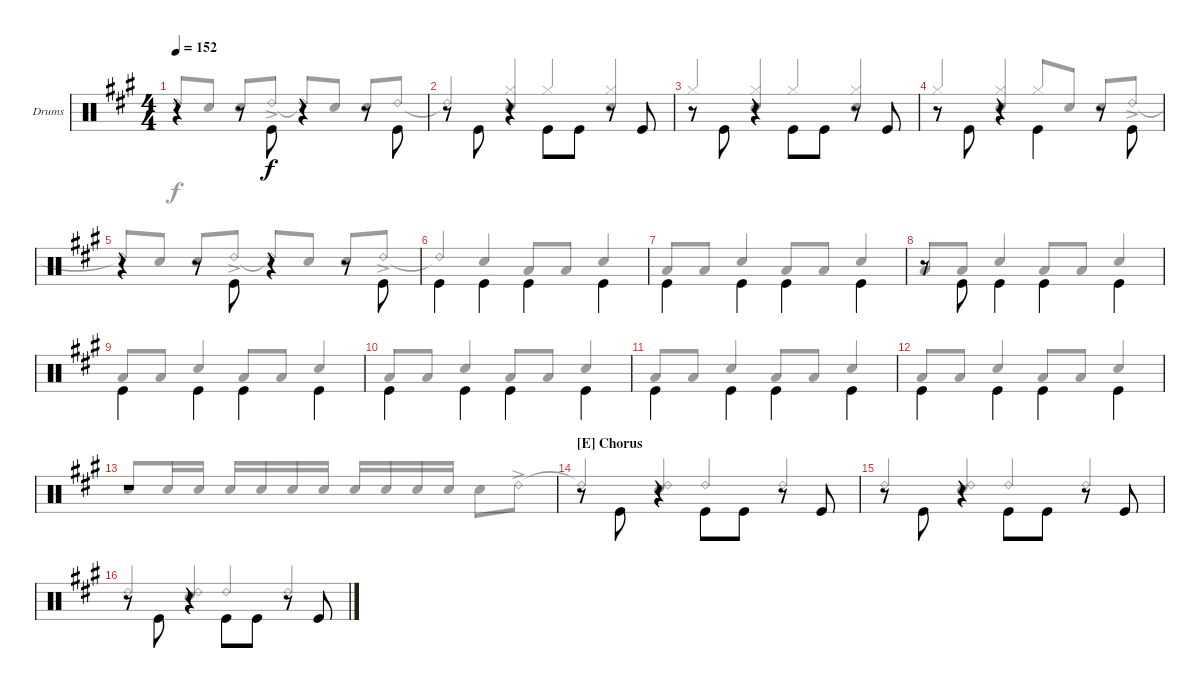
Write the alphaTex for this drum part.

\defaultSystemsLayout 4
\bracketExtendMode groupsimilarinstruments
\firstSystemTrackNameOrientation horizontal
\otherSystemsTrackNameOrientation horizontal
\track ("Drumkit" "Drums") {instrument percussion}
\staff {score}
\articulation defaults
\voice
\ts (4 4)
\tempo 152
\clef neutral
\scale
1.05801
\ks a
r.4{dy f} r.8{beam invert} "Kick (hit)".8{beam invert} r.4{beam invert} r.8{beam invert} "Kick (hit)".8{beam invert} |
\scale
0.941992 r.8 "Kick (hit)".8{beam invert} r.4 "Kick (hit)".8{beam invert} "Kick (hit)".8 r.8 "Kick (hit)".8 |
\scale
1.05801 r.8 "Kick (hit)".8{beam invert} r.4 "Kick (hit)".8{beam invert} "Kick (hit)".8 r.8 "Kick (hit)".8 |
\scale
0.941992 r.8 "Kick (hit)".8{beam invert} r.4 "Kick (hit)".4{beam invert} r.8 "Kick (hit)".8{beam invert} |
\scale
1.05801 r.4 r.8{beam invert} "Kick (hit)".8{beam invert} r.4{beam invert} r.8{beam invert} "Kick (hit)".8{beam invert} |
\scale
0.941992 "Kick (hit)".4{beam invert} "Kick (hit)".4{beam invert} "Kick (hit)".4{beam invert} "Kick (hit)".4{beam invert} |
\scale
1.05801 "Kick (hit)".4{beam invert} "Kick (hit)".4{beam invert} "Kick (hit)".4{beam invert} "Kick (hit)".4{beam invert} |
\scale
0.941992 r.8{beam invert} "Kick (hit)".8{beam invert} "Kick (hit)".4{beam invert} "Kick (hit)".4{beam invert} "Kick (hit)".4{beam invert} |
\scale
1.05801 "Kick (hit)".4{beam invert} "Kick (hit)".4{beam invert} "Kick (hit)".4{beam invert} "Kick (hit)".4{beam invert} |
\scale
0.941992 "Kick (hit)".4{beam invert} "Kick (hit)".4{beam invert} "Kick (hit)".4{beam invert} "Kick (hit)".4{beam invert} |
\scale
1.05801 "Kick (hit)".4{beam invert} "Kick (hit)".4{beam invert} "Kick (hit)".4{beam invert} "Kick (hit)".4{beam invert} |
\scale
0.941992 "Kick (hit)".4{beam invert} "Kick (hit)".4{beam invert} "Kick (hit)".4{beam invert} "Kick (hit)".4{beam invert} |
\scale
1.05801 r.1 |
\section ("E" "Chorus")
\scale
0.941992 r.8{beam invert} "Kick (hit)".8{beam invert} r.4{beam invert} "Kick (hit)".8{beam invert} "Kick (hit)".8 r.8 "Kick (hit)".8 |
\scale
1.05801 r.8{beam invert} "Kick (hit)".8{beam invert} r.4{beam invert} "Kick (hit)".8{beam invert} "Kick (hit)".8 r.8 "Kick (hit)".8 |
\scale
0.941992 r.8{beam invert} "Kick (hit)".8{beam invert} r.4{beam invert} "Kick (hit)".8{beam invert} "Kick (hit)".8 r.8 "Kick (hit)".8
\voice
\clef neutral
\ottava regular
\simile none
\scale
1.05801
\ks a "Ride (bell) 2"{t}.8{dy f beam invert} "Snare (hit) 2".8{beam invert} "Snare (hit) 2".8{beam invert} "Ride (bell) 2"{ac}.8 "Ride (bell) 2"{t}.8{beam invert} "Snare (hit) 2".8{beam invert} "Snare (hit) 2".8{beam invert} "Ride (bell) 2".8
|
\scale
0.941992 "Ride (bell) 2"{t}.4{beam invert} ("Hi-Hat (closed)" "Snare (hit) 2").4{beam invert} "Hi-Hat (closed)".4{beam invert} ("Hi-Hat (closed)" "Snare (hit) 2").4{beam invert} |
\scale
1.05801 "Hi-Hat (closed)".4{beam invert} ("Hi-Hat (closed)" "Snare (hit) 2").4{beam invert} "Hi-Hat (closed)".4{beam invert} ("Hi-Hat (closed)" "Snare (hit) 2").4{beam invert} |
\scale
0.941992 "Hi-Hat (closed)".4{beam invert} ("Hi-Hat (closed)" "Snare (hit) 2").4{beam invert} "Hi-Hat (closed)".8{beam invert} "Snare (hit) 2".8{beam invert} "Snare (hit) 2".8{beam invert} "Ride (bell) 2"{ac}.8 |
\scale
1.05801 "Ride (bell) 2"{t}.8{beam invert} "Snare (hit) 2".8{beam invert} "Snare (hit) 2".8{beam invert} "Ride (bell) 2"{ac}.8 "Ride (bell) 2"{t}.8{beam invert} "Snare (hit) 2".8{beam invert} "Snare (hit) 2".8{beam invert} "Ride (bell) 2"{ac}.8 |
\scale
0.941992 "Ride (bell) 2"{t}.4{beam invert} "Snare (hit) 2".4{beam invert} "Low Tom (hit)".8{beam invert} "Low Tom (hit)".8 "Snare (hit) 2".4{beam invert} |
\scale
1.05801 "Low Tom (hit)".8{beam invert} "Low Tom (hit)".8 "Snare (hit) 2".4{beam invert} "Low Tom (hit)".8{beam invert} "Low Tom (hit)".8 "Snare (hit) 2".4{beam invert} |
\scale
0.941992 "Low Tom (hit)".8{beam invert} "Low Tom (hit)".8 "Snare (hit) 2".4{beam invert} "Low Tom (hit)".8{beam invert} "Low Tom (hit)".8 "Snare (hit) 2".4{beam invert} |
\scale
1.05801 "Low Tom (hit)".8{beam invert} "Low Tom (hit)".8 "Snare (hit) 2".4{beam invert} "Low Tom (hit)".8{beam invert} "Low Tom (hit)".8 "Snare (hit) 2".4{beam invert} |
\scale
0.941992 "Low Tom (hit)".8{beam invert} "Low Tom (hit)".8 "Snare (hit) 2".4{beam invert} "Low Tom (hit)".8{beam invert} "Low Tom (hit)".8 "Snare (hit) 2".4{beam invert} |
\scale
1.05801 "Low Tom (hit)".8{beam invert} "Low Tom (hit)".8 "Snare (hit) 2".4{beam invert} "Low Tom (hit)".8{beam invert} "Low Tom (hit)".8 "Snare (hit) 2".4{beam invert} |
\scale
0.941992 "Low Tom (hit)".8{beam invert} "Low Tom (hit)".8 "Snare (hit) 2".4{beam invert} "Low Tom (hit)".8{beam invert} "Low Tom (hit)".8 "Snare (hit) 2".4{beam invert} |
\scale
1.05801 "Snare (hit) 2".8{beam invert} "Snare (hit) 2".16 "Snare (hit) 2".16 "Snare (hit) 2".16 "Snare (hit) 2".16 "Snare (hit) 2".16 "Snare (hit) 2".16 "Snare (hit) 2".16{beam invert} "Snare (hit) 2".16 "Snare (hit) 2".16 "Snare (hit) 2".16 "Snare (hit) 2".8 "Ride (bell) 2"{ac}.8 |
\scale
0.941992 "Ride (bell) 2"{t}.4{beam invert} ("Snare (hit) 2" "Ride (bell) 2").4{beam invert} "Ride (bell) 2".4{beam invert} "Ride (bell) 2".4{beam invert} |
\scale
1.05801 "Ride (bell) 2".4{beam invert} ("Snare (hit) 2" "Ride (bell) 2").4{beam invert} "Ride (bell) 2".4{beam invert} "Ride (bell) 2".4{beam invert} |
\scale
0.941992 "Ride (bell) 2".4{beam invert} ("Snare (hit) 2" "Ride (bell) 2").4{beam invert} "Ride (bell) 2".4{beam invert} "Ride (bell) 2".4{beam invert}
